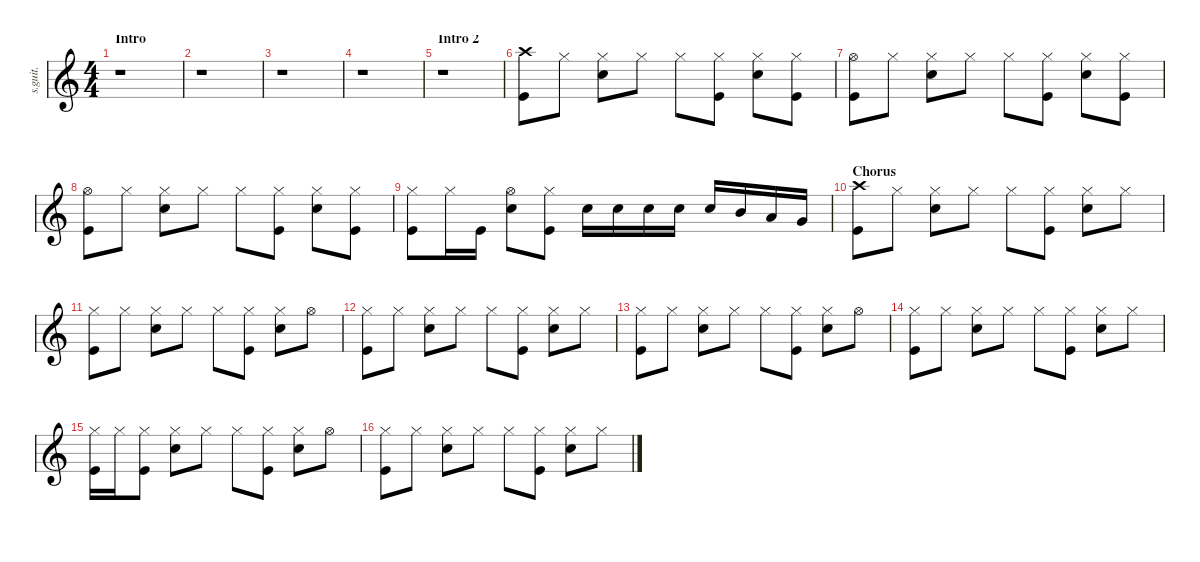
\defaultSystemsLayout 4
\hideDynamics
\bracketExtendMode nobrackets
\track ("Ethan Torchio (Drums)" "s.guit.") {instrument percussion}
\staff {score}
\articulation defaults
\ts (4 4)
\beaming (8 2 2 2 2)
\section ("" "Intro")
\tempo (60 hide)
\clef g2
\ks c
r.1{dy ff} |
r.1 |
r.1 |
r.1 |
\section ("" "Intro 2")
\tempo (134 hide)
r.1 |
("Kick (hit)" "Crash high (hit)").8{lyrics (0 "") lyrics (1 "") lyrics (2 "") lyrics (3 "") lyrics (4 "")} "Hi-Hat (closed)".8{lyrics (0 "") lyrics (1 "") lyrics (2 "") lyrics (3 "") lyrics (4 "")} ("Hi-Hat (closed)" "Snare (hit) 2").8{lyrics (0 "") lyrics (1 "") lyrics (2 "") lyrics (3 "") lyrics (4 "")} "Hi-Hat (closed)".8{lyrics (0 "") lyrics (1 "") lyrics (2 "") lyrics (3 "") lyrics (4 "")} "Hi-Hat (closed)".8{lyrics (0 "") lyrics (1 "") lyrics (2 "") lyrics (3 "") lyrics (4 "")} ("Hi-Hat (closed)" "Kick (hit)").8{lyrics (0 "") lyrics (1 "") lyrics (2 "") lyrics (3 "") lyrics (4 "")} ("Hi-Hat (closed)" "Snare (hit) 2").8{lyrics (0 "") lyrics (1 "") lyrics (2 "") lyrics (3 "") lyrics (4 "")} ("Hi-Hat (closed)" "Kick (hit)").8{lyrics (0 "") lyrics (1 "") lyrics (2 "") lyrics (3 "") lyrics (4 "")} |
("Kick (hit)" "Hi-Hat (open)").8{lyrics (0 "") lyrics (1 "") lyrics (2 "") lyrics (3 "") lyrics (4 "")} "Hi-Hat (closed)".8{lyrics (0 "") lyrics (1 "") lyrics (2 "") lyrics (3 "") lyrics (4 "")} ("Hi-Hat (closed)" "Snare (hit) 2").8{lyrics (0 "") lyrics (1 "") lyrics (2 "") lyrics (3 "") lyrics (4 "")} "Hi-Hat (closed)".8{lyrics (0 "") lyrics (1 "") lyrics (2 "") lyrics (3 "") lyrics (4 "")} "Hi-Hat (closed)".8{lyrics (0 "") lyrics (1 "") lyrics (2 "") lyrics (3 "") lyrics (4 "")} ("Hi-Hat (closed)" "Kick (hit)").8{lyrics (0 "") lyrics (1 "") lyrics (2 "") lyrics (3 "") lyrics (4 "")} ("Hi-Hat (closed)" "Snare (hit) 2").8{lyrics (0 "") lyrics (1 "") lyrics (2 "") lyrics (3 "") lyrics (4 "")} ("Hi-Hat (closed)" "Kick (hit)").8{lyrics (0 "") lyrics (1 "") lyrics (2 "") lyrics (3 "") lyrics (4 "")} |
("Kick (hit)" "Hi-Hat (open)").8{lyrics (0 "") lyrics (1 "") lyrics (2 "") lyrics (3 "") lyrics (4 "")} "Hi-Hat (closed)".8{lyrics (0 "") lyrics (1 "") lyrics (2 "") lyrics (3 "") lyrics (4 "")} ("Hi-Hat (closed)" "Snare (hit) 2").8{lyrics (0 "") lyrics (1 "") lyrics (2 "") lyrics (3 "") lyrics (4 "")} "Hi-Hat (closed)".8{lyrics (0 "") lyrics (1 "") lyrics (2 "") lyrics (3 "") lyrics (4 "")} "Hi-Hat (closed)".8{lyrics (0 "") lyrics (1 "") lyrics (2 "") lyrics (3 "") lyrics (4 "")} ("Hi-Hat (closed)" "Kick (hit)").8{lyrics (0 "") lyrics (1 "") lyrics (2 "") lyrics (3 "") lyrics (4 "")} ("Hi-Hat (closed)" "Snare (hit) 2").8{lyrics (0 "") lyrics (1 "") lyrics (2 "") lyrics (3 "") lyrics (4 "")} ("Hi-Hat (closed)" "Kick (hit)").8{lyrics (0 "") lyrics (1 "") lyrics (2 "") lyrics (3 "") lyrics (4 "")} |
("Hi-Hat (closed)" "Kick (hit)").8{lyrics (0 "") lyrics (1 "") lyrics (2 "") lyrics (3 "") lyrics (4 "")} "Hi-Hat (closed)".16{lyrics (0 "") lyrics (1 "") lyrics (2 "") lyrics (3 "") lyrics (4 "")} "Kick (hit)".16{lyrics (0 "") lyrics (1 "") lyrics (2 "") lyrics (3 "") lyrics (4 "")} ("Snare (hit) 2" "Hi-Hat (open)").8{lyrics (0 "") lyrics (1 "") lyrics (2 "") lyrics (3 "") lyrics (4 "")} ("Hi-Hat (closed)" "Kick (hit)").8{lyrics (0 "") lyrics (1 "") lyrics (2 "") lyrics (3 "") lyrics (4 "")} "Snare (hit) 2".16{lyrics (0 "") lyrics (1 "") lyrics (2 "") lyrics (3 "") lyrics (4 "") dy p} "Snare (hit) 2".16{lyrics (0 "") lyrics (1 "") lyrics (2 "") lyrics (3 "") lyrics (4 "") dy mp} "Snare (hit) 2".16{lyrics (0 "") lyrics (1 "") lyrics (2 "") lyrics (3 "") lyrics (4 "") dy mf} "Snare (hit) 2".16{lyrics (0 "") lyrics (1 "") lyrics (2 "") lyrics (3 "") lyrics (4 "") dy ff} "Snare (hit) 2".16{lyrics (0 "") lyrics (1 "") lyrics (2 "") lyrics (3 "") lyrics (4 "")} "Mid Tom (hit)".16{lyrics (0 "") lyrics (1 "") lyrics (2 "") lyrics (3 "") lyrics (4 "")} "Low Tom (hit)".16{lyrics (0 "") lyrics (1 "") lyrics (2 "") lyrics (3 "") lyrics (4 "")} "Very Low Tom (hit)".16{lyrics (0 "") lyrics (1 "") lyrics (2 "") lyrics (3 "") lyrics (4 "")} |
\section ("" "Chorus")
("Kick (hit)" "Crash high (hit)").8{lyrics (0 "") lyrics (1 "") lyrics (2 "") lyrics (3 "") lyrics (4 "")} "Hi-Hat (closed)".8{lyrics (0 "") lyrics (1 "") lyrics (2 "") lyrics (3 "") lyrics (4 "")} ("Hi-Hat (closed)" "Snare (hit) 2").8{lyrics (0 "") lyrics (1 "") lyrics (2 "") lyrics (3 "") lyrics (4 "")} "Hi-Hat (closed)".8{lyrics (0 "") lyrics (1 "") lyrics (2 "") lyrics (3 "") lyrics (4 "")} "Hi-Hat (closed)".8{lyrics (0 "") lyrics (1 "") lyrics (2 "") lyrics (3 "") lyrics (4 "")} ("Hi-Hat (closed)" "Kick (hit)").8{lyrics (0 "") lyrics (1 "") lyrics (2 "") lyrics (3 "") lyrics (4 "")} ("Hi-Hat (closed)" "Snare (hit) 2").8{lyrics (0 "") lyrics (1 "") lyrics (2 "") lyrics (3 "") lyrics (4 "")} "Hi-Hat (closed)".8{lyrics (0 "") lyrics (1 "") lyrics (2 "") lyrics (3 "") lyrics (4 "")} |
("Kick (hit)" "Hi-Hat (closed)").8{lyrics (0 "") lyrics (1 "") lyrics (2 "") lyrics (3 "") lyrics (4 "")} "Hi-Hat (closed)".8{lyrics (0 "") lyrics (1 "") lyrics (2 "") lyrics (3 "") lyrics (4 "")} ("Hi-Hat (closed)" "Snare (hit) 2").8{lyrics (0 "") lyrics (1 "") lyrics (2 "") lyrics (3 "") lyrics (4 "")} "Hi-Hat (closed)".8{lyrics (0 "") lyrics (1 "") lyrics (2 "") lyrics (3 "") lyrics (4 "")} "Hi-Hat (closed)".8{lyrics (0 "") lyrics (1 "") lyrics (2 "") lyrics (3 "") lyrics (4 "")} ("Hi-Hat (closed)" "Kick (hit)").8{lyrics (0 "") lyrics (1 "") lyrics (2 "") lyrics (3 "") lyrics (4 "")} ("Hi-Hat (closed)" "Snare (hit) 2").8{lyrics (0 "") lyrics (1 "") lyrics (2 "") lyrics (3 "") lyrics (4 "")} "Hi-Hat (open)".8{lyrics (0 "") lyrics (1 "") lyrics (2 "") lyrics (3 "") lyrics (4 "")} |
("Kick (hit)" "Hi-Hat (closed)").8{lyrics (0 "") lyrics (1 "") lyrics (2 "") lyrics (3 "") lyrics (4 "")} "Hi-Hat (closed)".8{lyrics (0 "") lyrics (1 "") lyrics (2 "") lyrics (3 "") lyrics (4 "")} ("Hi-Hat (closed)" "Snare (hit) 2").8{lyrics (0 "") lyrics (1 "") lyrics (2 "") lyrics (3 "") lyrics (4 "")} "Hi-Hat (closed)".8{lyrics (0 "") lyrics (1 "") lyrics (2 "") lyrics (3 "") lyrics (4 "")} "Hi-Hat (closed)".8{lyrics (0 "") lyrics (1 "") lyrics (2 "") lyrics (3 "") lyrics (4 "")} ("Hi-Hat (closed)" "Kick (hit)").8{lyrics (0 "") lyrics (1 "") lyrics (2 "") lyrics (3 "") lyrics (4 "")} ("Hi-Hat (closed)" "Snare (hit) 2").8{lyrics (0 "") lyrics (1 "") lyrics (2 "") lyrics (3 "") lyrics (4 "")} "Hi-Hat (closed)".8{lyrics (0 "") lyrics (1 "") lyrics (2 "") lyrics (3 "") lyrics (4 "")} |
("Kick (hit)" "Hi-Hat (closed)").8{lyrics (0 "") lyrics (1 "") lyrics (2 "") lyrics (3 "") lyrics (4 "")} "Hi-Hat (closed)".8{lyrics (0 "") lyrics (1 "") lyrics (2 "") lyrics (3 "") lyrics (4 "")} ("Hi-Hat (closed)" "Snare (hit) 2").8{lyrics (0 "") lyrics (1 "") lyrics (2 "") lyrics (3 "") lyrics (4 "")} "Hi-Hat (closed)".8{lyrics (0 "") lyrics (1 "") lyrics (2 "") lyrics (3 "") lyrics (4 "")} "Hi-Hat (closed)".8{lyrics (0 "") lyrics (1 "") lyrics (2 "") lyrics (3 "") lyrics (4 "")} ("Hi-Hat (closed)" "Kick (hit)").8{lyrics (0 "") lyrics (1 "") lyrics (2 "") lyrics (3 "") lyrics (4 "")} ("Hi-Hat (closed)" "Snare (hit) 2").8{lyrics (0 "") lyrics (1 "") lyrics (2 "") lyrics (3 "") lyrics (4 "")} "Hi-Hat (open)".8{lyrics (0 "") lyrics (1 "") lyrics (2 "") lyrics (3 "") lyrics (4 "")} |
("Kick (hit)" "Hi-Hat (closed)").8{lyrics (0 "") lyrics (1 "") lyrics (2 "") lyrics (3 "") lyrics (4 "")} "Hi-Hat (closed)".8{lyrics (0 "") lyrics (1 "") lyrics (2 "") lyrics (3 "") lyrics (4 "")} ("Hi-Hat (closed)" "Snare (hit) 2").8{lyrics (0 "") lyrics (1 "") lyrics (2 "") lyrics (3 "") lyrics (4 "")} "Hi-Hat (closed)".8{lyrics (0 "") lyrics (1 "") lyrics (2 "") lyrics (3 "") lyrics (4 "")} "Hi-Hat (closed)".8{lyrics (0 "") lyrics (1 "") lyrics (2 "") lyrics (3 "") lyrics (4 "")} ("Hi-Hat (closed)" "Kick (hit)").8{lyrics (0 "") lyrics (1 "") lyrics (2 "") lyrics (3 "") lyrics (4 "")} ("Hi-Hat (closed)" "Snare (hit) 2").8{lyrics (0 "") lyrics (1 "") lyrics (2 "") lyrics (3 "") lyrics (4 "")} "Hi-Hat (closed)".8{lyrics (0 "") lyrics (1 "") lyrics (2 "") lyrics (3 "") lyrics (4 "")} |
("Kick (hit)" "Hi-Hat (closed)").16{lyrics (0 "") lyrics (1 "") lyrics (2 "") lyrics (3 "") lyrics (4 "")} "Hi-Hat (closed)".16{lyrics (0 "") lyrics (1 "") lyrics (2 "") lyrics (3 "") lyrics (4 "")} ("Hi-Hat (closed)" "Kick (hit)").8{lyrics (0 "") lyrics (1 "") lyrics (2 "") lyrics (3 "") lyrics (4 "")} ("Hi-Hat (closed)" "Snare (hit) 2").8{lyrics (0 "") lyrics (1 "") lyrics (2 "") lyrics (3 "") lyrics (4 "")} "Hi-Hat (closed)".8{lyrics (0 "") lyrics (1 "") lyrics (2 "") lyrics (3 "") lyrics (4 "")} "Hi-Hat (closed)".8{lyrics (0 "") lyrics (1 "") lyrics (2 "") lyrics (3 "") lyrics (4 "")} ("Hi-Hat (closed)" "Kick (hit)").8{lyrics (0 "") lyrics (1 "") lyrics (2 "") lyrics (3 "") lyrics (4 "")} ("Hi-Hat (closed)" "Snare (hit) 2").8{lyrics (0 "") lyrics (1 "") lyrics (2 "") lyrics (3 "") lyrics (4 "")} "Hi-Hat (open)".8{lyrics (0 "") lyrics (1 "") lyrics (2 "") lyrics (3 "") lyrics (4 "")} |
("Kick (hit)" "Hi-Hat (closed)").8{lyrics (0 "") lyrics (1 "") lyrics (2 "") lyrics (3 "") lyrics (4 "")} "Hi-Hat (closed)".8{lyrics (0 "") lyrics (1 "") lyrics (2 "") lyrics (3 "") lyrics (4 "")} ("Hi-Hat (closed)" "Snare (hit) 2").8{lyrics (0 "") lyrics (1 "") lyrics (2 "") lyrics (3 "") lyrics (4 "")} "Hi-Hat (closed)".8{lyrics (0 "") lyrics (1 "") lyrics (2 "") lyrics (3 "") lyrics (4 "")} "Hi-Hat (closed)".8{lyrics (0 "") lyrics (1 "") lyrics (2 "") lyrics (3 "") lyrics (4 "")} ("Hi-Hat (closed)" "Kick (hit)").8{lyrics (0 "") lyrics (1 "") lyrics (2 "") lyrics (3 "") lyrics (4 "")} ("Hi-Hat (closed)" "Snare (hit) 2").8{lyrics (0 "") lyrics (1 "") lyrics (2 "") lyrics (3 "") lyrics (4 "")} "Hi-Hat (closed)".8{lyrics (0 "") lyrics (1 "") lyrics (2 "") lyrics (3 "") lyrics (4 "")}
